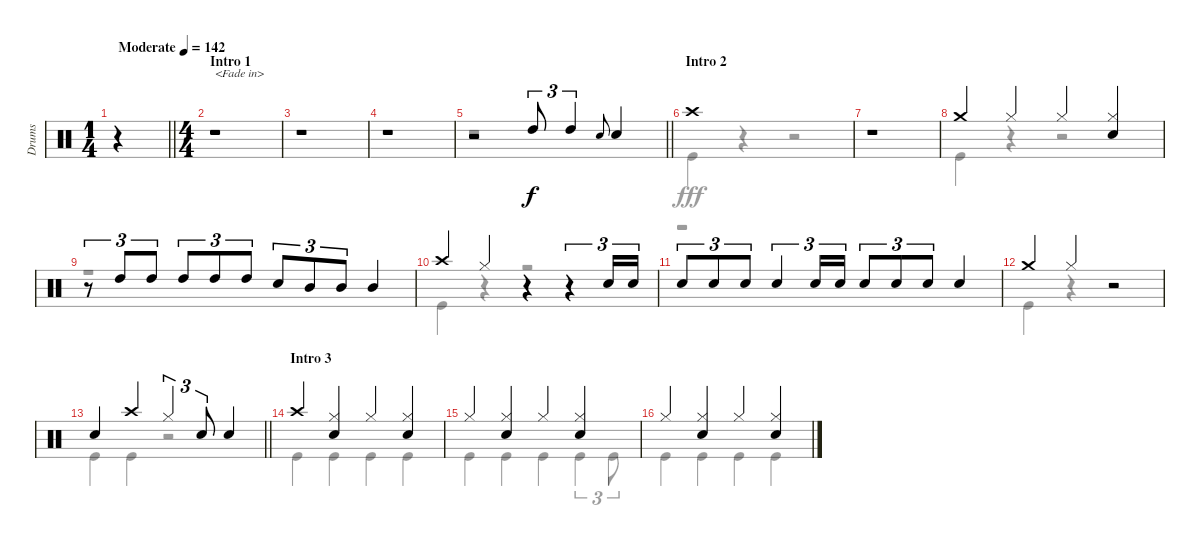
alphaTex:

\track ("Drums" "Drums") {instrument percussion}
\staff {score}
\articulation defaults
\voice
\ts (1 4)
\tempo (142 "Moderate")
\clef neutral
\barLineRight lightlight
\ks c
r.4{dy f} |
\ts (4 4)
\section ("" "Intro 1")
r.1{txt "<Fade in>"} |
r.1 |
r.1 |
\barLineRight lightlight
r.2 "High Tom (hit)".8{tu (3 2)} "High Tom (hit)".4{tu (3 2)} "Snare (hit) 2".8{gr onbeat} "Snare (hit) 2".4 |
\section ("" "Intro 2")
"Crash high (hit)".1 |
r.1 |
"Crash medium (hit)".4 "Hi-Hat (closed)".4 "Hi-Hat (closed)".4 ("Hi-Hat (closed)" "Snare (hit) 2").4 |
r.8{tu (3 2)} "High Tom (hit)".8{tu (3 2)} "High Tom (hit)".8{tu (3 2)} "High Tom (hit)".8{tu (3 2)} "High Tom (hit)".8{tu (3 2)} "High Tom (hit)".8{tu (3 2)} "Snare (hit) 2".8{tu (3 2)} "Mid Tom (hit)".8{tu (3 2)} "Mid Tom (hit)".8{tu (3 2)} "Mid Tom (hit)".4 |
"Crash high (hit)".4 "Hi-Hat (closed)".4 r.4 r.4{tu (3 2)} "Snare (hit) 2".16{tu (3 2)} "Snare (hit) 2".16{tu (3 2)} |
"Snare (hit) 2".8{tu (3 2)} "Snare (hit) 2".8{tu (3 2)} "Snare (hit) 2".8{tu (3 2)} "Snare (hit) 2".4{tu (3 2)} "Snare (hit) 2".16{tu (3 2)} "Snare (hit) 2".16{tu (3 2)} "Snare (hit) 2".8{tu (3 2)} "Snare (hit) 2".8{tu (3 2)} "Snare (hit) 2".8{tu (3 2)} "Snare (hit) 2".4 |
"Crash medium (hit)".4 "Hi-Hat (closed)".4 r.2 |
\barLineRight lightlight "Snare (hit) 2".4 "Crash high (hit)".4 "Hi-Hat (closed)".4{tu (3 2)} "Snare (hit) 2".8{tu (3 2)} "Snare (hit) 2".4
|
\section ("" "Intro 3")
"Crash high (hit)".4 ("Hi-Hat (closed)" "Snare (hit) 2").4 "Hi-Hat (closed)".4 ("Hi-Hat (closed)" "Snare (hit) 2").4 |
"Hi-Hat (closed)".4 ("Hi-Hat (closed)" "Snare (hit) 2").4 "Hi-Hat (closed)".4 ("Hi-Hat (closed)" "Snare (hit) 2").4 |
"Hi-Hat (closed)".4 ("Hi-Hat (closed)" "Snare (hit) 2").4 "Hi-Hat (closed)".4 ("Hi-Hat (closed)" "Snare (hit) 2").4
\voice
\clef neutral
\ottava regular
\simile none
\barLineRight lightlight
\ks c
r.4{dy fff} |
r.1 |
r.1 |
r.1 |
\barLineRight lightlight
r.1 |
"Kick (hit)".4 r.4 r.2 |
r.1 |
"Kick (hit)".4 r.4 r.2 |
r.1 |
"Kick (hit)".4 r.4 r.2 |
r.1 |
"Kick (hit)".4 r.4 r.2 |
\barLineRight lightlight "Kick (hit)".4 "Kick (hit)".4
r.2 |
"Kick (hit)".4 "Kick (hit)".4 "Kick (hit)".4 "Kick (hit)".4 |
"Kick (hit)".4 "Kick (hit)".4 "Kick (hit)".4 "Kick (hit)".4{tu (3 2)} "Kick (hit)".8{tu (3 2)} |
"Kick (hit)".4 "Kick (hit)".4 "Kick (hit)".4 "Kick (hit)".4
